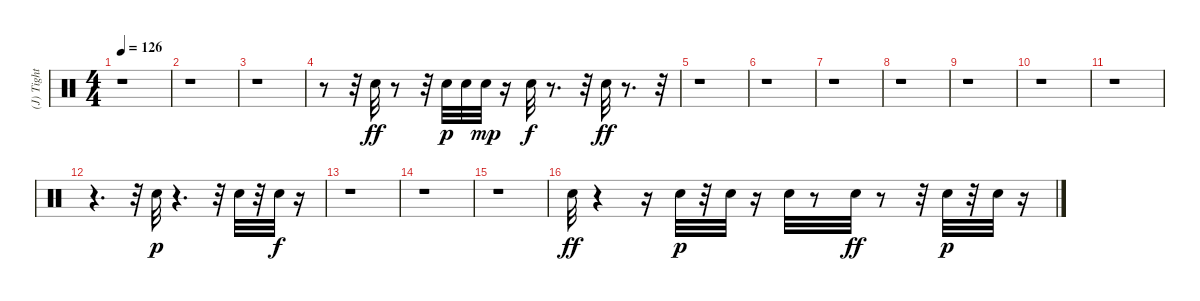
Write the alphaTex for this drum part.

\track ("(J) Tight Snare" "(J) Tight ") {instrument percussion}
\staff {score}
\articulation defaults
\ts (4 4)
\tempo 126
\clef neutral
\ks c
r.1{dy f} |
r.1 |
r.1 |
r.8 r.32 "Electric Snare (hit)".32{dy ff} r.8 r.32 "Electric Snare (hit)".32{dy p} "Electric Snare (hit)".32 "Electric Snare (hit)".32{dy mp} r.16 "Electric Snare (hit)".32{dy f} r.8{d} r.32 "Electric Snare (hit)".32{dy ff} r.8{d} r.32 |
r.1 |
r.1 |
r.1 |
r.1 |
r.1 |
r.1 |
r.1 |
r.4{d} r.32 "Electric Snare (hit)".32{dy p} r.4{d} r.32 "Electric Snare (hit)".32 r.32 "Electric Snare (hit)".32{dy f} r.16 |
r.1 |
r.1 |
r.1 |
"Electric Snare (hit)".32{dy ff} r.4 r.16 "Electric Snare (hit)".32{dy p} r.32 "Electric Snare (hit)".32 r.16 "Electric Snare (hit)".32 r.8 "Electric Snare (hit)".32{dy ff} r.8 r.32 "Electric Snare (hit)".32{dy p} r.32 "Electric Snare (hit)".32 r.16
